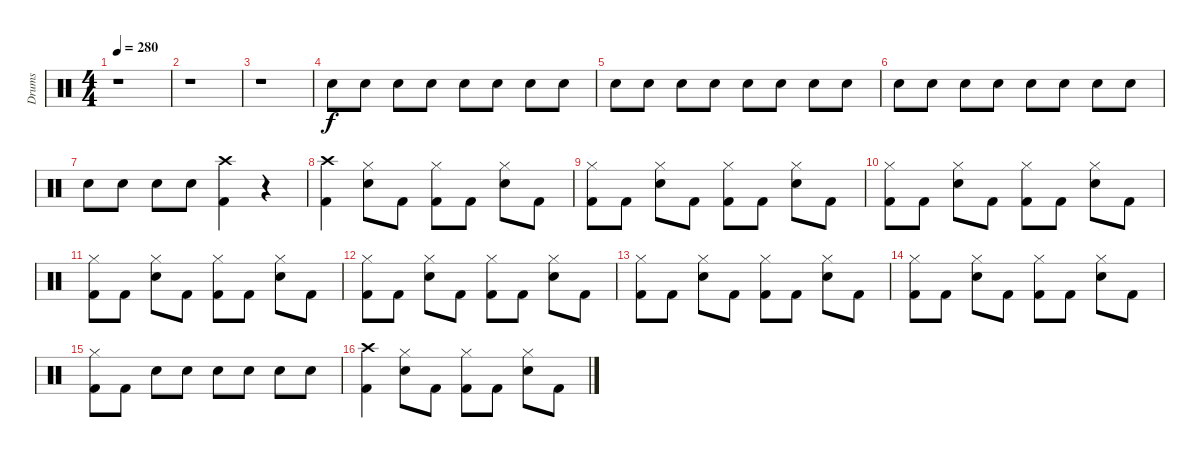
\track ("Drums" "Drums") {instrument percussion}
\staff {score}
\articulation defaults
\ts (4 4)
\tempo 280
\clef neutral
\ks c
r.1{dy f} |
r.1 |
r.1 |
"Snare (hit) 2".8 "Snare (hit) 2".8 "Snare (hit) 2".8 "Snare (hit) 2".8 "Snare (hit) 2".8 "Snare (hit) 2".8 "Snare (hit) 2".8 "Snare (hit) 2".8 |
"Snare (hit) 2".8 "Snare (hit) 2".8 "Snare (hit) 2".8 "Snare (hit) 2".8 "Snare (hit) 2".8 "Snare (hit) 2".8 "Snare (hit) 2".8 "Snare (hit) 2".8 |
"Snare (hit) 2".8 "Snare (hit) 2".8 "Snare (hit) 2".8 "Snare (hit) 2".8 "Snare (hit) 2".8 "Snare (hit) 2".8 "Snare (hit) 2".8 "Snare (hit) 2".8 |
"Snare (hit) 2".8 "Snare (hit) 2".8 "Snare (hit) 2".8 "Snare (hit) 2".8 ("Kick (hit) 2" "Crash high (hit)").4 r.4 |
("Kick (hit) 2" "Crash high (hit)").4 ("Hi-Hat (closed)" "Snare (hit) 2").8 "Kick (hit) 2".8 ("Hi-Hat (closed)" "Kick (hit) 2").8 "Kick (hit) 2".8 ("Hi-Hat (closed)" "Snare (hit) 2").8 "Kick (hit) 2".8 |
("Hi-Hat (closed)" "Kick (hit) 2").8 "Kick (hit) 2".8 ("Hi-Hat (closed)" "Snare (hit) 2").8 "Kick (hit) 2".8 ("Hi-Hat (closed)" "Kick (hit) 2").8 "Kick (hit) 2".8 ("Hi-Hat (closed)" "Snare (hit) 2").8 "Kick (hit) 2".8 |
("Hi-Hat (closed)" "Kick (hit) 2").8 "Kick (hit) 2".8 ("Hi-Hat (closed)" "Snare (hit) 2").8 "Kick (hit) 2".8 ("Hi-Hat (closed)" "Kick (hit) 2").8 "Kick (hit) 2".8 ("Hi-Hat (closed)" "Snare (hit) 2").8 "Kick (hit) 2".8 |
("Hi-Hat (closed)" "Kick (hit) 2").8 "Kick (hit) 2".8 ("Hi-Hat (closed)" "Snare (hit) 2").8 "Kick (hit) 2".8 ("Hi-Hat (closed)" "Kick (hit) 2").8 "Kick (hit) 2".8 ("Hi-Hat (closed)" "Snare (hit) 2").8 "Kick (hit) 2".8 |
("Hi-Hat (closed)" "Kick (hit) 2").8 "Kick (hit) 2".8 ("Hi-Hat (closed)" "Snare (hit) 2").8 "Kick (hit) 2".8 ("Hi-Hat (closed)" "Kick (hit) 2").8 "Kick (hit) 2".8 ("Hi-Hat (closed)" "Snare (hit) 2").8 "Kick (hit) 2".8 |
("Hi-Hat (closed)" "Kick (hit) 2").8 "Kick (hit) 2".8 ("Hi-Hat (closed)" "Snare (hit) 2").8 "Kick (hit) 2".8 ("Hi-Hat (closed)" "Kick (hit) 2").8 "Kick (hit) 2".8 ("Hi-Hat (closed)" "Snare (hit) 2").8 "Kick (hit) 2".8 |
("Hi-Hat (closed)" "Kick (hit) 2").8 "Kick (hit) 2".8 ("Hi-Hat (closed)" "Snare (hit) 2").8 "Kick (hit) 2".8 ("Hi-Hat (closed)" "Kick (hit) 2").8 "Kick (hit) 2".8 ("Hi-Hat (closed)" "Snare (hit) 2").8 "Kick (hit) 2".8 |
("Kick (hit) 2" "Hi-Hat (closed)").8 "Kick (hit) 2".8 "Snare (hit) 2".8 "Snare (hit) 2".8 "Snare (hit) 2".8 "Snare (hit) 2".8 "Snare (hit) 2".8 "Snare (hit) 2".8 |
("Kick (hit) 2" "Crash high (hit)").4 ("Hi-Hat (closed)" "Snare (hit) 2").8 "Kick (hit) 2".8 ("Hi-Hat (closed)" "Kick (hit) 2").8 "Kick (hit) 2".8 ("Hi-Hat (closed)" "Snare (hit) 2").8 "Kick (hit) 2".8
